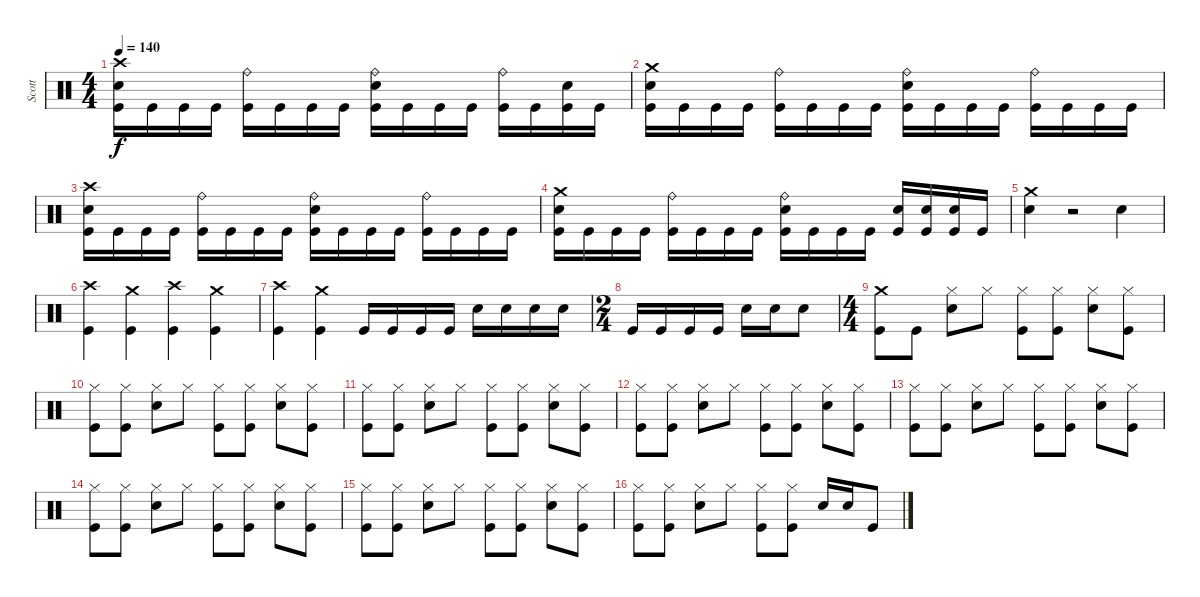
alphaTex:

\track ("Scott" "Scott") {instrument percussion}
\staff {score}
\articulation defaults
\ts (4 4)
\tempo 140
\clef neutral
\ks c
("Kick (hit)" "Snare (hit) 2" "Crash high (hit)").16{dy f} "Kick (hit)".16 "Kick (hit)".16 "Kick (hit)".16 ("Kick (hit)" "Ride (bell)").16 "Kick (hit)".16 "Kick (hit)".16 "Kick (hit)".16 ("Kick (hit)" "Snare (hit) 2" "Ride (bell)").16 "Kick (hit)".16 "Kick (hit)".16 "Kick (hit)".16 ("Kick (hit)" "Ride (bell)").16 "Kick (hit)".16 ("Kick (hit)" "Snare (hit) 2").16 "Kick (hit)".16 |
("Kick (hit)" "Snare (hit) 2" "Crash medium (hit)").16 "Kick (hit)".16 "Kick (hit)".16 "Kick (hit)".16 ("Kick (hit)" "Ride (bell)").16 "Kick (hit)".16 "Kick (hit)".16 "Kick (hit)".16 ("Kick (hit)" "Snare (hit) 2" "Ride (bell)").16 "Kick (hit)".16 "Kick (hit)".16 "Kick (hit)".16 ("Kick (hit)" "Ride (bell)").16 "Kick (hit)".16 "Kick (hit)".16 "Kick (hit)".16 |
("Kick (hit)" "Snare (hit) 2" "Crash high (hit)").16 "Kick (hit)".16 "Kick (hit)".16 "Kick (hit)".16 ("Kick (hit)" "Ride (bell)").16 "Kick (hit)".16 "Kick (hit)".16 "Kick (hit)".16 ("Kick (hit)" "Snare (hit) 2" "Ride (bell)").16 "Kick (hit)".16 "Kick (hit)".16 "Kick (hit)".16 ("Kick (hit)" "Ride (bell)").16 "Kick (hit)".16 "Kick (hit)".16 "Kick (hit)".16 |
("Kick (hit)" "Snare (hit) 2" "Crash medium (hit)").16 "Kick (hit)".16 "Kick (hit)".16 "Kick (hit)".16 ("Kick (hit)" "Ride (bell)").16 "Kick (hit)".16 "Kick (hit)".16 "Kick (hit)".16 ("Kick (hit)" "Snare (hit) 2" "Ride (bell)").16 "Kick (hit)".16 "Kick (hit)".16 "Kick (hit)".16 ("Kick (hit)" "Snare (hit) 2").16 ("Kick (hit)" "Snare (hit) 2").16 ("Kick (hit)" "Snare (hit) 2").16 "Kick (hit)".16 |
("Snare (hit) 2" "Crash medium (hit)").4 r.2 "Snare (hit) 2".4 |
("Kick (hit)" "Crash high (hit)").4 ("Kick (hit)" "Crash medium (hit)").4 ("Kick (hit)" "Crash high (hit)").4 ("Kick (hit)" "Crash medium (hit)").4 |
("Kick (hit)" "Crash high (hit)").4 ("Kick (hit)" "Crash medium (hit)").4 "Kick (hit)".16 "Kick (hit)".16 "Kick (hit)".16 "Kick (hit)".16 "Snare (hit) 2".16 "Snare (hit) 2".16 "Snare (hit) 2".16 "Snare (hit) 2".16 |
\ts (2 4)
"Kick (hit)".16 "Kick (hit)".16 "Kick (hit)".16 "Kick (hit)".16 "Snare (hit) 2".16 "Snare (hit) 2".16 "Snare (hit) 2".8 |
\ts (4 4)
("Kick (hit)" "Crash medium (hit)").8 "Kick (hit)".8 ("Snare (hit) 2" "Hi-Hat (closed)").8 "Hi-Hat (closed)".8 ("Kick (hit)" "Hi-Hat (closed)").8 ("Kick (hit)" "Hi-Hat (closed)").8 ("Snare (hit) 2" "Hi-Hat (closed)").8 ("Kick (hit)" "Hi-Hat (closed)").8 |
("Kick (hit)" "Hi-Hat (closed)").8 ("Kick (hit)" "Hi-Hat (closed)").8 ("Snare (hit) 2" "Hi-Hat (closed)").8 "Hi-Hat (closed)".8 ("Kick (hit)" "Hi-Hat (closed)").8 ("Kick (hit)" "Hi-Hat (closed)").8 ("Snare (hit) 2" "Hi-Hat (closed)").8 ("Kick (hit)" "Hi-Hat (closed)").8 |
("Kick (hit)" "Hi-Hat (closed)").8 ("Kick (hit)" "Hi-Hat (closed)").8 ("Snare (hit) 2" "Hi-Hat (closed)").8 "Hi-Hat (closed)".8 ("Kick (hit)" "Hi-Hat (closed)").8 ("Kick (hit)" "Hi-Hat (closed)").8 ("Snare (hit) 2" "Hi-Hat (closed)").8 ("Kick (hit)" "Hi-Hat (closed)").8 |
("Kick (hit)" "Hi-Hat (closed)").8 ("Kick (hit)" "Hi-Hat (closed)").8 ("Snare (hit) 2" "Hi-Hat (closed)").8 "Hi-Hat (closed)".8 ("Kick (hit)" "Hi-Hat (closed)").8 ("Kick (hit)" "Hi-Hat (closed)").8 ("Snare (hit) 2" "Hi-Hat (closed)").8 ("Kick (hit)" "Hi-Hat (closed)").8 |
("Kick (hit)" "Hi-Hat (closed)").8 ("Kick (hit)" "Hi-Hat (closed)").8 ("Snare (hit) 2" "Hi-Hat (closed)").8 "Hi-Hat (closed)".8 ("Kick (hit)" "Hi-Hat (closed)").8 ("Kick (hit)" "Hi-Hat (closed)").8 ("Snare (hit) 2" "Hi-Hat (closed)").8 ("Kick (hit)" "Hi-Hat (closed)").8 |
("Kick (hit)" "Hi-Hat (closed)").8 ("Kick (hit)" "Hi-Hat (closed)").8 ("Snare (hit) 2" "Hi-Hat (closed)").8 "Hi-Hat (closed)".8 ("Kick (hit)" "Hi-Hat (closed)").8 ("Kick (hit)" "Hi-Hat (closed)").8 ("Snare (hit) 2" "Hi-Hat (closed)").8 ("Kick (hit)" "Hi-Hat (closed)").8 |
("Kick (hit)" "Hi-Hat (closed)").8 ("Kick (hit)" "Hi-Hat (closed)").8 ("Snare (hit) 2" "Hi-Hat (closed)").8 "Hi-Hat (closed)".8 ("Kick (hit)" "Hi-Hat (closed)").8 ("Kick (hit)" "Hi-Hat (closed)").8 ("Snare (hit) 2" "Hi-Hat (closed)").8 ("Kick (hit)" "Hi-Hat (closed)").8 |
("Kick (hit)" "Hi-Hat (closed)").8 ("Kick (hit)" "Hi-Hat (closed)").8 ("Snare (hit) 2" "Hi-Hat (closed)").8 "Hi-Hat (closed)".8 ("Kick (hit)" "Hi-Hat (closed)").8 ("Kick (hit)" "Hi-Hat (closed)").8 "Snare (hit) 2".16 "Snare (hit) 2".16 "Kick (hit)".8
